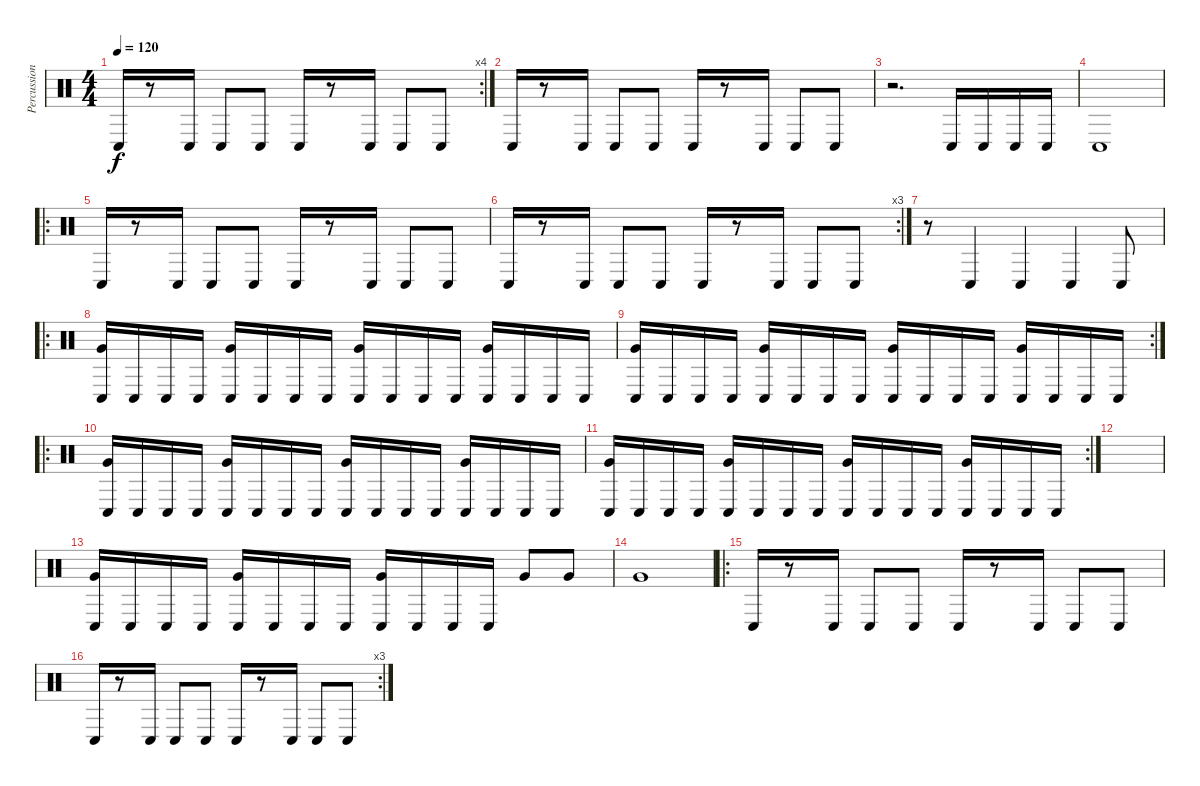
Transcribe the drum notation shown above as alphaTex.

\track ("Percussions" "Percussion") {instrument percussion}
\staff {score}
\articulation defaults
\rc 4
\ts (4 4)
\tempo 120
\clef neutral
\ks c "Conga low (hit)".16{dy f}
r.8 "Conga low (hit)".16 "Conga low (hit)".8 "Conga low (hit)".8 "Conga low (hit)".16 r.8 "Conga low (hit)".16 "Conga low (hit)".8 "Conga low (hit)".8 |
"Conga low (hit)".16 r.8 "Conga low (hit)".16 "Conga low (hit)".8 "Conga low (hit)".8 "Conga low (hit)".16 r.8 "Conga low (hit)".16 "Conga low (hit)".8 "Conga low (hit)".8 |
r.2{d} "Conga low (hit)".16 "Conga low (hit)".16 "Conga low (hit)".16 "Conga low (hit)".16 |
"Conga low (hit)".1 |
\ro "Conga low (hit)".16
r.8 "Conga low (hit)".16 "Conga low (hit)".8 "Conga low (hit)".8 "Conga low (hit)".16 r.8 "Conga low (hit)".16 "Conga low (hit)".8 "Conga low (hit)".8 |
\rc 3 "Conga low (hit)".16
r.8 "Conga low (hit)".16 "Conga low (hit)".8 "Conga low (hit)".8 "Conga low (hit)".16 r.8 "Conga low (hit)".16 "Conga low (hit)".8 "Conga low (hit)".8 |
r.8 "Conga low (hit)".4 "Conga low (hit)".4 "Conga low (hit)".4 "Conga low (hit)".8 |
\ro
("Conga low (hit)" "Very Low Tom (hit)").16 "Conga low (hit)".16 "Conga low (hit)".16 "Conga low (hit)".16 ("Conga low (hit)" "Very Low Tom (hit)").16 "Conga low (hit)".16 "Conga low (hit)".16 "Conga low (hit)".16 ("Conga low (hit)" "Very Low Tom (hit)").16 "Conga low (hit)".16 "Conga low (hit)".16 "Conga low (hit)".16 ("Conga low (hit)" "Very Low Tom (hit)").16 "Conga low (hit)".16 "Conga low (hit)".16 "Conga low (hit)".16 |
\rc 2
("Conga low (hit)" "Very Low Tom (hit)").16 "Conga low (hit)".16 "Conga low (hit)".16 "Conga low (hit)".16 ("Conga low (hit)" "Very Low Tom (hit)").16 "Conga low (hit)".16 "Conga low (hit)".16 "Conga low (hit)".16 ("Conga low (hit)" "Very Low Tom (hit)").16 "Conga low (hit)".16 "Conga low (hit)".16 "Conga low (hit)".16 ("Conga low (hit)" "Very Low Tom (hit)").16 "Conga low (hit)".16 "Conga low (hit)".16 "Conga low (hit)".16 |
\ro
("Conga low (hit)" "Very Low Tom (hit)").16 "Conga low (hit)".16 "Conga low (hit)".16 "Conga low (hit)".16 ("Conga low (hit)" "Very Low Tom (hit)").16 "Conga low (hit)".16 "Conga low (hit)".16 "Conga low (hit)".16 ("Conga low (hit)" "Very Low Tom (hit)").16 "Conga low (hit)".16 "Conga low (hit)".16 "Conga low (hit)".16 ("Conga low (hit)" "Very Low Tom (hit)").16 "Conga low (hit)".16 "Conga low (hit)".16 "Conga low (hit)".16 |
\rc 2
("Conga low (hit)" "Very Low Tom (hit)").16 "Conga low (hit)".16 "Conga low (hit)".16 "Conga low (hit)".16 ("Conga low (hit)" "Very Low Tom (hit)").16 "Conga low (hit)".16 "Conga low (hit)".16 "Conga low (hit)".16 ("Conga low (hit)" "Very Low Tom (hit)").16 "Conga low (hit)".16 "Conga low (hit)".16 "Conga low (hit)".16 ("Conga low (hit)" "Very Low Tom (hit)").16 "Conga low (hit)".16 "Conga low (hit)".16 "Conga low (hit)".16 |
|
("Conga low (hit)" "Very Low Tom (hit)").16 "Conga low (hit)".16 "Conga low (hit)".16 "Conga low (hit)".16 ("Conga low (hit)" "Very Low Tom (hit)").16 "Conga low (hit)".16 "Conga low (hit)".16 "Conga low (hit)".16 ("Conga low (hit)" "Very Low Tom (hit)").16 "Conga low (hit)".16 "Conga low (hit)".16 "Conga low (hit)".16 "Very Low Tom (hit)".8 "Very Low Tom (hit)".8 |
"Very Low Tom (hit)".1 |
\ro "Conga low (hit)".16
r.8 "Conga low (hit)".16 "Conga low (hit)".8 "Conga low (hit)".8 "Conga low (hit)".16 r.8 "Conga low (hit)".16 "Conga low (hit)".8 "Conga low (hit)".8 |
\rc 3 "Conga low (hit)".16
r.8 "Conga low (hit)".16 "Conga low (hit)".8 "Conga low (hit)".8 "Conga low (hit)".16 r.8 "Conga low (hit)".16 "Conga low (hit)".8 "Conga low (hit)".8
